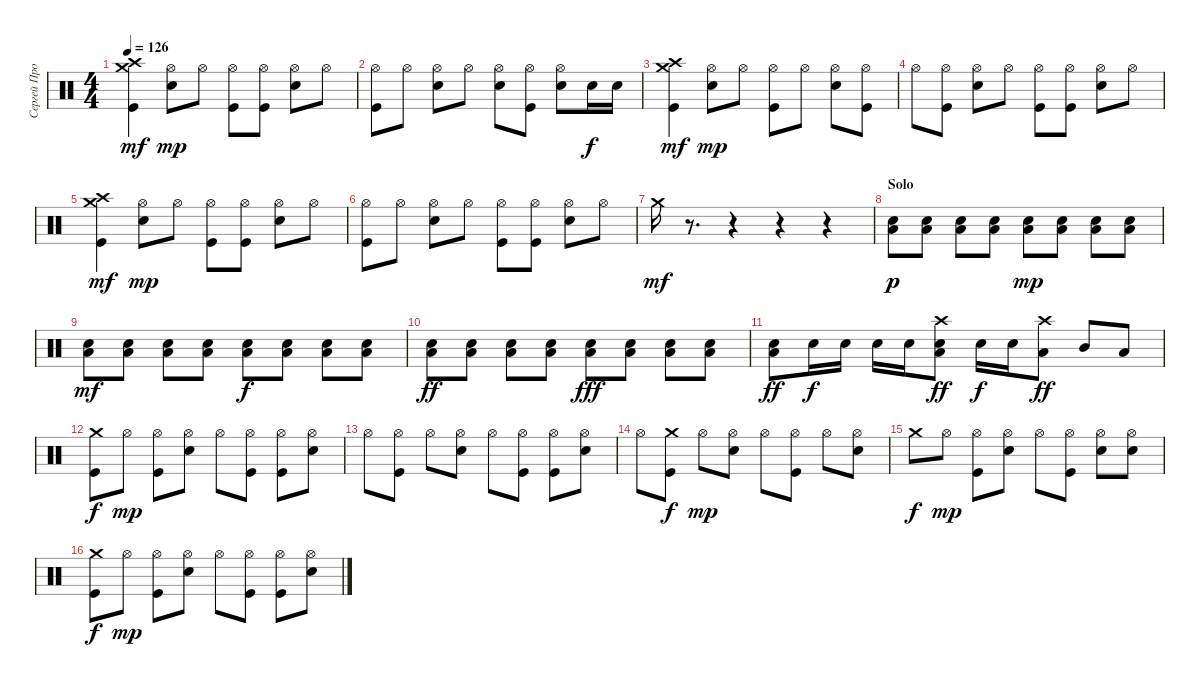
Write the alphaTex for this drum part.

\track ("Сергей Прокофьев (Барабаны)" "Сергей Про") {instrument percussion}
\staff {score}
\articulation defaults
\ts (4 4)
\tempo 126
\clef neutral
\ks c
("Crash high (hit)" "Crash medium (hit)" "Kick (hit)").4{dy mf} ("Hi-Hat (open)" "Electric Snare (hit)").8{dy mp} "Hi-Hat (open)".8 ("Hi-Hat (open)" "Kick (hit)").8 ("Hi-Hat (open)" "Kick (hit)").8 ("Hi-Hat (open)" "Electric Snare (hit)").8 "Hi-Hat (open)".8 |
("Hi-Hat (open)" "Kick (hit)").8 "Hi-Hat (open)".8 ("Hi-Hat (open)" "Electric Snare (hit)").8 "Hi-Hat (open)".8 ("Hi-Hat (open)" "Electric Snare (hit)").8 ("Hi-Hat (open)" "Kick (hit)").8 ("Hi-Hat (open)" "Electric Snare (hit)").8 "Electric Snare (hit)".16{dy f} "Electric Snare (hit)".16 |
("Crash high (hit)" "Crash medium (hit)" "Kick (hit)").4{dy mf} ("Hi-Hat (open)" "Electric Snare (hit)").8{dy mp} "Hi-Hat (open)".8 ("Hi-Hat (open)" "Kick (hit)").8 "Hi-Hat (open)".8 ("Hi-Hat (open)" "Electric Snare (hit)").8 ("Hi-Hat (open)" "Kick (hit)").8 |
"Hi-Hat (open)".8 ("Hi-Hat (open)" "Kick (hit)").8 ("Hi-Hat (open)" "Electric Snare (hit)").8 "Hi-Hat (open)".8 ("Hi-Hat (open)" "Kick (hit)").8 ("Hi-Hat (open)" "Kick (hit)").8 ("Hi-Hat (open)" "Electric Snare (hit)").8 "Hi-Hat (open)".8 |
("Crash high (hit)" "Crash medium (hit)" "Kick (hit)").4{dy mf} ("Hi-Hat (open)" "Electric Snare (hit)").8{dy mp} "Hi-Hat (open)".8 ("Hi-Hat (open)" "Kick (hit)").8 ("Hi-Hat (open)" "Kick (hit)").8 ("Hi-Hat (open)" "Electric Snare (hit)").8 "Hi-Hat (open)".8 |
("Hi-Hat (open)" "Kick (hit)").8 "Hi-Hat (open)".8 ("Hi-Hat (open)" "Electric Snare (hit)").8 "Hi-Hat (open)".8 ("Hi-Hat (open)" "Kick (hit)").8 ("Hi-Hat (open)" "Kick (hit)").8 ("Hi-Hat (open)" "Electric Snare (hit)").8 "Hi-Hat (open)".8 |
"Crash medium (hit)".16{dy mf} r.8{d} r.4 r.4 r.4 |
\section ("" "Solo")
("Electric Snare (hit)" "Low Floor Tom (hit)").8{dy p} ("Electric Snare (hit)" "Low Floor Tom (hit)").8 ("Electric Snare (hit)" "Low Floor Tom (hit)").8 ("Electric Snare (hit)" "Low Floor Tom (hit)").8 ("Electric Snare (hit)" "Low Floor Tom (hit)").8{dy mp} ("Electric Snare (hit)" "Low Floor Tom (hit)").8 ("Electric Snare (hit)" "Low Floor Tom (hit)").8 ("Electric Snare (hit)" "Low Floor Tom (hit)").8 |
("Electric Snare (hit)" "Low Floor Tom (hit)").8{dy mf} ("Electric Snare (hit)" "Low Floor Tom (hit)").8 ("Electric Snare (hit)" "Low Floor Tom (hit)").8 ("Electric Snare (hit)" "Low Floor Tom (hit)").8 ("Electric Snare (hit)" "Low Floor Tom (hit)").8{dy f} ("Electric Snare (hit)" "Low Floor Tom (hit)").8 ("Electric Snare (hit)" "Low Floor Tom (hit)").8 ("Electric Snare (hit)" "Low Floor Tom (hit)").8 |
("Electric Snare (hit)" "Low Floor Tom (hit)").8{dy ff} ("Electric Snare (hit)" "Low Floor Tom (hit)").8 ("Electric Snare (hit)" "Low Floor Tom (hit)").8 ("Electric Snare (hit)" "Low Floor Tom (hit)").8 ("Electric Snare (hit)" "Low Floor Tom (hit)").8{dy fff} ("Electric Snare (hit)" "Low Floor Tom (hit)").8 ("Electric Snare (hit)" "Low Floor Tom (hit)").8 ("Electric Snare (hit)" "Low Floor Tom (hit)").8 |
("Electric Snare (hit)" "Low Floor Tom (hit)").8{dy ff} "Electric Snare (hit)".16{dy f} "Electric Snare (hit)".16 "Electric Snare (hit)".16 "Electric Snare (hit)".16 ("Crash high (hit)" "Electric Snare (hit)" "Low Floor Tom (hit)").8{dy ff} "Electric Snare (hit)".16{dy f} "Electric Snare (hit)".16 ("Crash high (hit)" "Low Floor Tom (hit)").8{dy ff} "Mid Tom (hit)".8 "Low Floor Tom (hit)".8 |
("Crash medium (hit)" "Kick (hit)").8{dy f} "Hi-Hat (open)".8{dy mp} ("Hi-Hat (open)" "Kick (hit)").8 ("Hi-Hat (open)" "Electric Snare (hit)").8 "Hi-Hat (open)".8 ("Hi-Hat (open)" "Kick (hit)").8 ("Hi-Hat (open)" "Kick (hit)").8 ("Hi-Hat (open)" "Electric Snare (hit)").8 |
"Hi-Hat (open)".8 ("Hi-Hat (open)" "Kick (hit)").8 "Hi-Hat (open)".8 ("Hi-Hat (open)" "Electric Snare (hit)").8 "Hi-Hat (open)".8 ("Hi-Hat (open)" "Kick (hit)").8 ("Hi-Hat (open)" "Kick (hit)").8 ("Hi-Hat (open)" "Electric Snare (hit)").8 |
"Hi-Hat (open)".8 ("Crash medium (hit)" "Kick (hit)").8{dy f} "Hi-Hat (open)".8{dy mp} ("Hi-Hat (open)" "Electric Snare (hit)").8 "Hi-Hat (open)".8 ("Hi-Hat (open)" "Kick (hit)").8 "Hi-Hat (open)".8 ("Hi-Hat (open)" "Electric Snare (hit)").8 |
"Crash medium (hit)".8{dy f} "Hi-Hat (open)".8{dy mp} ("Hi-Hat (open)" "Kick (hit)").8 ("Hi-Hat (open)" "Electric Snare (hit)").8 "Hi-Hat (open)".8 ("Hi-Hat (open)" "Kick (hit)").8 ("Hi-Hat (open)" "Electric Snare (hit)").8 ("Hi-Hat (open)" "Electric Snare (hit)").8 |
("Crash medium (hit)" "Kick (hit)").8{dy f} "Hi-Hat (open)".8{dy mp} ("Hi-Hat (open)" "Kick (hit)").8 ("Hi-Hat (open)" "Electric Snare (hit)").8 "Hi-Hat (open)".8 ("Hi-Hat (open)" "Kick (hit)").8 ("Hi-Hat (open)" "Kick (hit)").8 ("Hi-Hat (open)" "Electric Snare (hit)").8
